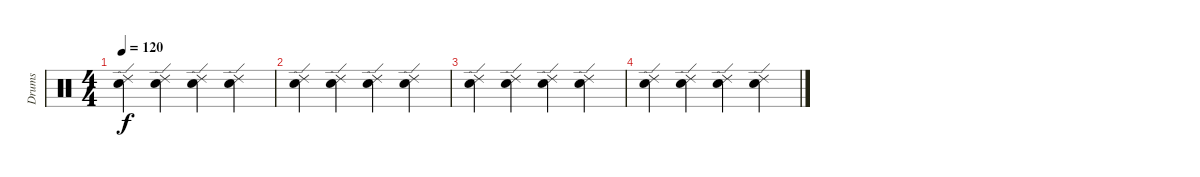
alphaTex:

\track ("Drums" "Drums") {instrument percussion}
\staff {score}
\articulation defaults
\ts (4 4)
\tempo 120
\clef neutral
\ks c
("Snare (hit) 2" "Ride (edge) 2").4{dy f} ("Electric Snare (hit)" "Ride (edge) 2").4 ("Snare (hit) 2" "Ride (edge) 2").4 ("Electric Snare (hit)" "Ride (edge) 2").4 |
("Snare (hit) 2" "Ride (edge) 2").4 ("Electric Snare (hit)" "Ride (edge) 2").4 ("Snare (hit) 2" "Ride (edge) 2").4 ("Electric Snare (hit)" "Ride (edge) 2").4 |
("Snare (hit) 2" "Ride (edge) 2").4 ("Electric Snare (hit)" "Ride (edge) 2").4 ("Snare (hit) 2" "Ride (edge) 2").4 ("Electric Snare (hit)" "Ride (edge) 2").4 |
("Snare (hit) 2" "Ride (edge) 2").4 ("Electric Snare (hit)" "Ride (edge) 2").4 ("Snare (hit) 2" "Ride (edge) 2").4 ("Electric Snare (hit)" "Ride (edge) 2").4
